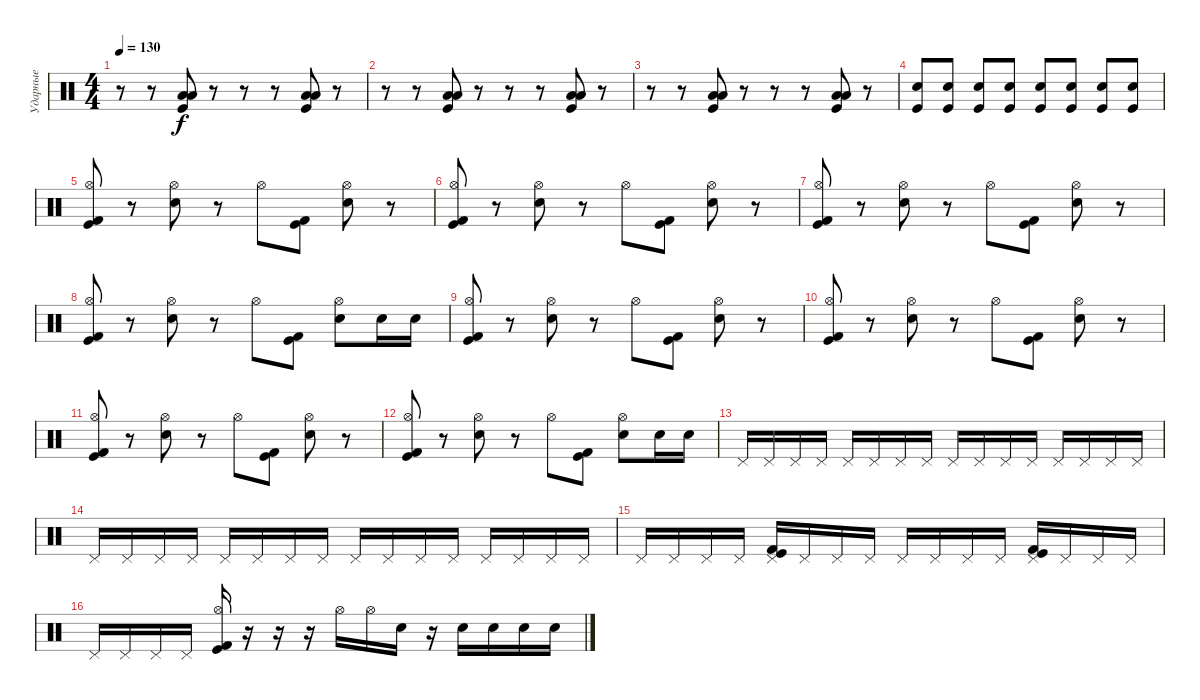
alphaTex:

\track ("Ударные" "Ударные") {instrument percussion}
\staff {score}
\articulation defaults
\ts (4 4)
\tempo 130
\clef neutral
\ks c
r.8{dy f} r.8 ("Kick (hit)" "Low Tom (hit)" "Low Floor Tom (hit)").8 r.8 r.8 r.8 ("Kick (hit)" "Low Tom (hit)" "Low Floor Tom (hit)").8 r.8 |
r.8 r.8 ("Kick (hit)" "Low Tom (hit)" "Low Floor Tom (hit)").8 r.8 r.8 r.8 ("Kick (hit)" "Low Tom (hit)" "Low Floor Tom (hit)").8 r.8 |
r.8 r.8 ("Kick (hit)" "Low Tom (hit)" "Low Floor Tom (hit)").8 r.8 r.8 r.8 ("Kick (hit)" "Low Tom (hit)" "Low Floor Tom (hit)").8 r.8 |
("Electric Snare (hit)" "Kick (hit)").8 ("Electric Snare (hit)" "Kick (hit)").8 ("Electric Snare (hit)" "Kick (hit)").8 ("Electric Snare (hit)" "Kick (hit)").8 ("Electric Snare (hit)" "Kick (hit)").8 ("Electric Snare (hit)" "Kick (hit)").8 ("Electric Snare (hit)" "Kick (hit)").8 ("Electric Snare (hit)" "Kick (hit)").8 |
("Hi-Hat (open)" "Kick (hit)" "Kick (hit) 2").8 r.8 ("Hi-Hat (open)" "Electric Snare (hit)").8 r.8 "Hi-Hat (open)".8 ("Kick (hit)" "Kick (hit) 2").8 ("Hi-Hat (open)" "Electric Snare (hit)").8 r.8 |
("Hi-Hat (open)" "Kick (hit)" "Kick (hit) 2").8 r.8 ("Hi-Hat (open)" "Electric Snare (hit)").8 r.8 "Hi-Hat (open)".8 ("Kick (hit)" "Kick (hit) 2").8 ("Hi-Hat (open)" "Electric Snare (hit)").8 r.8 |
("Hi-Hat (open)" "Kick (hit)" "Kick (hit) 2").8 r.8 ("Hi-Hat (open)" "Electric Snare (hit)").8 r.8 "Hi-Hat (open)".8 ("Kick (hit)" "Kick (hit) 2").8 ("Hi-Hat (open)" "Electric Snare (hit)").8 r.8 |
("Hi-Hat (open)" "Kick (hit)" "Kick (hit) 2").8 r.8 ("Hi-Hat (open)" "Electric Snare (hit)").8 r.8 "Hi-Hat (open)".8 ("Kick (hit)" "Kick (hit) 2").8 ("Hi-Hat (open)" "Electric Snare (hit)").8 "Electric Snare (hit)".16 "Electric Snare (hit)".16 |
("Hi-Hat (open)" "Kick (hit)" "Kick (hit) 2").8 r.8 ("Hi-Hat (open)" "Electric Snare (hit)").8 r.8 "Hi-Hat (open)".8 ("Kick (hit)" "Kick (hit) 2").8 ("Hi-Hat (open)" "Electric Snare (hit)").8 r.8 |
("Hi-Hat (open)" "Kick (hit)" "Kick (hit) 2").8 r.8 ("Hi-Hat (open)" "Electric Snare (hit)").8 r.8 "Hi-Hat (open)".8 ("Kick (hit)" "Kick (hit) 2").8 ("Hi-Hat (open)" "Electric Snare (hit)").8 r.8 |
("Hi-Hat (open)" "Kick (hit)" "Kick (hit) 2").8 r.8 ("Hi-Hat (open)" "Electric Snare (hit)").8 r.8 "Hi-Hat (open)".8 ("Kick (hit)" "Kick (hit) 2").8 ("Hi-Hat (open)" "Electric Snare (hit)").8 r.8 |
("Hi-Hat (open)" "Kick (hit)" "Kick (hit) 2").8 r.8 ("Hi-Hat (open)" "Electric Snare (hit)").8 r.8 "Hi-Hat (open)".8 ("Kick (hit)" "Kick (hit) 2").8 ("Hi-Hat (open)" "Electric Snare (hit)").8 "Electric Snare (hit)".16 "Electric Snare (hit)".16 |
"Pedal Hi-Hat (hit)".16 "Pedal Hi-Hat (hit)".16 "Pedal Hi-Hat (hit)".16 "Pedal Hi-Hat (hit)".16 "Pedal Hi-Hat (hit)".16 "Pedal Hi-Hat (hit)".16 "Pedal Hi-Hat (hit)".16 "Pedal Hi-Hat (hit)".16 "Pedal Hi-Hat (hit)".16 "Pedal Hi-Hat (hit)".16 "Pedal Hi-Hat (hit)".16 "Pedal Hi-Hat (hit)".16 "Pedal Hi-Hat (hit)".16 "Pedal Hi-Hat (hit)".16 "Pedal Hi-Hat (hit)".16 "Pedal Hi-Hat (hit)".16 |
"Pedal Hi-Hat (hit)".16 "Pedal Hi-Hat (hit)".16 "Pedal Hi-Hat (hit)".16 "Pedal Hi-Hat (hit)".16 "Pedal Hi-Hat (hit)".16 "Pedal Hi-Hat (hit)".16 "Pedal Hi-Hat (hit)".16 "Pedal Hi-Hat (hit)".16 "Pedal Hi-Hat (hit)".16 "Pedal Hi-Hat (hit)".16 "Pedal Hi-Hat (hit)".16 "Pedal Hi-Hat (hit)".16 "Pedal Hi-Hat (hit)".16 "Pedal Hi-Hat (hit)".16 "Pedal Hi-Hat (hit)".16 "Pedal Hi-Hat (hit)".16 |
"Pedal Hi-Hat (hit)".16 "Pedal Hi-Hat (hit)".16 "Pedal Hi-Hat (hit)".16 "Pedal Hi-Hat (hit)".16 ("Pedal Hi-Hat (hit)" "Kick (hit)" "Kick (hit) 2").16 "Pedal Hi-Hat (hit)".16 "Pedal Hi-Hat (hit)".16 "Pedal Hi-Hat (hit)".16 "Pedal Hi-Hat (hit)".16 "Pedal Hi-Hat (hit)".16 "Pedal Hi-Hat (hit)".16 "Pedal Hi-Hat (hit)".16 ("Pedal Hi-Hat (hit)" "Kick (hit)" "Kick (hit) 2").16 "Pedal Hi-Hat (hit)".16 "Pedal Hi-Hat (hit)".16 "Pedal Hi-Hat (hit)".16 |
"Pedal Hi-Hat (hit)".16 "Pedal Hi-Hat (hit)".16 "Pedal Hi-Hat (hit)".16 "Pedal Hi-Hat (hit)".16 ("Hi-Hat (open)" "Kick (hit)" "Kick (hit) 2").16 r.16 r.16 r.16 "Hi-Hat (open)".16 "Hi-Hat (open)".16 "Electric Snare (hit)".16 r.16 "Electric Snare (hit)".16 "Electric Snare (hit)".16 "Electric Snare (hit)".16 "Electric Snare (hit)".16
